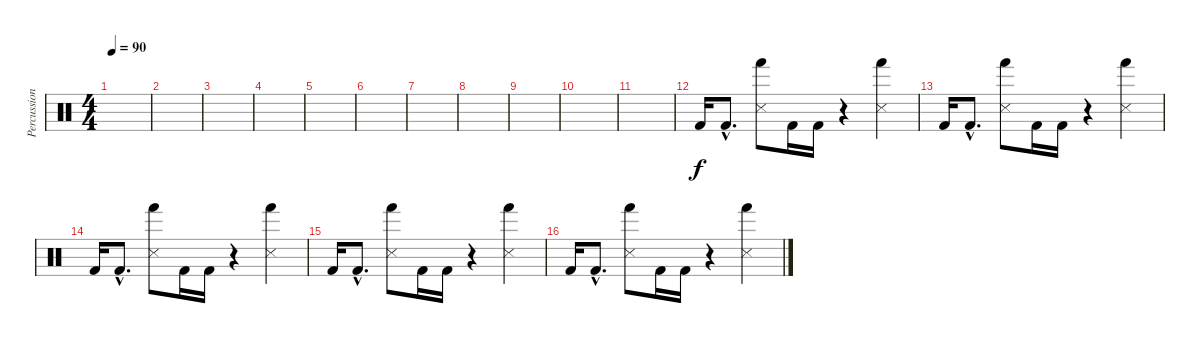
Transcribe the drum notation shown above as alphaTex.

\track ("Percussions" "Percussion") {instrument percussion}
\staff {score}
\articulation defaults
\ts (4 4)
\tempo 90
\clef neutral
\ks c
|
|
|
|
|
|
|
|
|
|
|
"Kick (hit) 2".16 "Kick (hit) 2"{hac}.8{d} ("Hand (hit)" "Snare (side stick) 3").8 "Kick (hit) 2".16 "Kick (hit) 2".16 r.4 ("Hand (hit)" "Snare (side stick) 3").4 |
"Kick (hit) 2".16 "Kick (hit) 2"{hac}.8{d} ("Hand (hit)" "Snare (side stick) 3").8 "Kick (hit) 2".16 "Kick (hit) 2".16 r.4 ("Hand (hit)" "Snare (side stick) 3").4 |
"Kick (hit) 2".16 "Kick (hit) 2"{hac}.8{d} ("Hand (hit)" "Snare (side stick) 3").8 "Kick (hit) 2".16 "Kick (hit) 2".16 r.4 ("Hand (hit)" "Snare (side stick) 3").4 |
"Kick (hit) 2".16 "Kick (hit) 2"{hac}.8{d} ("Hand (hit)" "Snare (side stick) 3").8 "Kick (hit) 2".16 "Kick (hit) 2".16 r.4 ("Hand (hit)" "Snare (side stick) 3").4 |
"Kick (hit) 2".16 "Kick (hit) 2"{hac}.8{d} ("Hand (hit)" "Snare (side stick) 3").8 "Kick (hit) 2".16 "Kick (hit) 2".16 r.4 ("Hand (hit)" "Snare (side stick) 3").4
